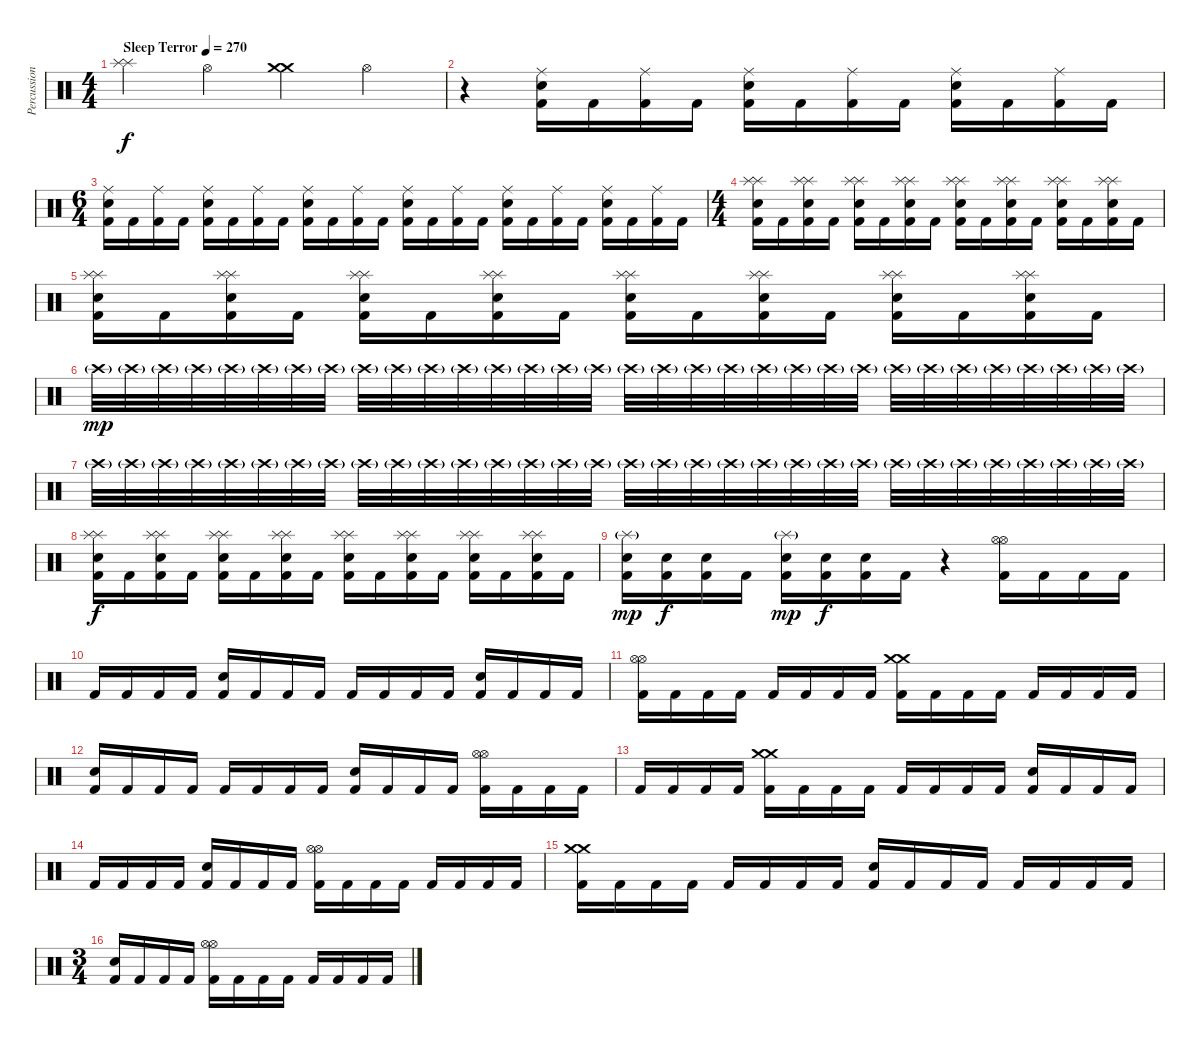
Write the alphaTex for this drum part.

\track ("Percussions" "Percussion") {instrument percussion}
\staff {score}
\articulation defaults
\ts (4 4)
\tempo (270 "Sleep Terror")
\clef neutral
\ks c
("Splash (hit)" "Splash (hit)").4{dy f} "Hi-Hat (open)".4 ("Crash medium (hit)" "Crash medium (hit)").4 "Hi-Hat (open)".4 |
r.4 ("Ride (middle)" "Electric Snare (hit)" "Kick (hit) 2").16 "Kick (hit) 2".16 ("Ride (middle)" "Kick (hit) 2").16 "Kick (hit) 2".16 ("Ride (middle)" "Electric Snare (hit)" "Kick (hit) 2").16 "Kick (hit) 2".16 ("Ride (middle)" "Kick (hit) 2").16 "Kick (hit) 2".16 ("Ride (middle)" "Electric Snare (hit)" "Kick (hit) 2").16 "Kick (hit) 2".16 ("Ride (middle)" "Kick (hit) 2").16 "Kick (hit) 2".16 |
\ts (6 4)
("Ride (middle)" "Electric Snare (hit)" "Kick (hit) 2").16 "Kick (hit) 2".16 ("Ride (middle)" "Kick (hit) 2").16 "Kick (hit) 2".16 ("Ride (middle)" "Electric Snare (hit)" "Kick (hit) 2").16 "Kick (hit) 2".16 ("Ride (middle)" "Kick (hit) 2").16 "Kick (hit) 2".16 ("Ride (middle)" "Electric Snare (hit)" "Kick (hit) 2").16 "Kick (hit) 2".16 ("Ride (middle)" "Kick (hit) 2").16 "Kick (hit) 2".16 ("Ride (middle)" "Electric Snare (hit)" "Kick (hit) 2").16 "Kick (hit) 2".16 ("Ride (middle)" "Kick (hit) 2").16 "Kick (hit) 2".16 ("Ride (middle)" "Electric Snare (hit)" "Kick (hit) 2").16 "Kick (hit) 2".16 ("Ride (middle)" "Kick (hit) 2").16 "Kick (hit) 2".16 ("Ride (middle)" "Electric Snare (hit)" "Kick (hit) 2").16 "Kick (hit) 2".16 ("Ride (middle)" "Kick (hit) 2").16 "Kick (hit) 2".16 |
\ts (4 4)
("Splash (hit)" "Splash (hit)" "Electric Snare (hit)" "Kick (hit) 2").16 "Kick (hit) 2".16 ("Splash (hit)" "Splash (hit)" "Electric Snare (hit)" "Kick (hit) 2").16 "Kick (hit) 2".16 ("Splash (hit)" "Splash (hit)" "Electric Snare (hit)" "Kick (hit) 2").16 "Kick (hit) 2".16 ("Splash (hit)" "Splash (hit)" "Electric Snare (hit)" "Kick (hit) 2").16 "Kick (hit) 2".16 ("Splash (hit)" "Splash (hit)" "Electric Snare (hit)" "Kick (hit) 2").16 "Kick (hit) 2".16 ("Splash (hit)" "Splash (hit)" "Electric Snare (hit)" "Kick (hit) 2").16 "Kick (hit) 2".16 ("Splash (hit)" "Splash (hit)" "Electric Snare (hit)" "Kick (hit) 2").16 "Kick (hit) 2".16 ("Splash (hit)" "Splash (hit)" "Electric Snare (hit)" "Kick (hit) 2").16 "Kick (hit) 2".16 |
("Splash (hit)" "Splash (hit)" "Electric Snare (hit)" "Kick (hit) 2").16 "Kick (hit) 2".16 ("Splash (hit)" "Splash (hit)" "Electric Snare (hit)" "Kick (hit) 2").16 "Kick (hit) 2".16 ("Splash (hit)" "Splash (hit)" "Electric Snare (hit)" "Kick (hit) 2").16 "Kick (hit) 2".16 ("Splash (hit)" "Splash (hit)" "Electric Snare (hit)" "Kick (hit) 2").16 "Kick (hit) 2".16 ("Splash (hit)" "Splash (hit)" "Electric Snare (hit)" "Kick (hit) 2").16 "Kick (hit) 2".16 ("Splash (hit)" "Splash (hit)" "Electric Snare (hit)" "Kick (hit) 2").16 "Kick (hit) 2".16 ("Splash (hit)" "Splash (hit)" "Electric Snare (hit)" "Kick (hit) 2").16 "Kick (hit) 2".16 ("Splash (hit)" "Splash (hit)" "Electric Snare (hit)" "Kick (hit) 2").16 "Kick (hit) 2".16 |
"Crash high (hit)"{g}.32{dy mp} "Crash high (hit)"{g}.32 "Crash high (hit)"{g}.32 "Crash high (hit)"{g}.32 "Crash high (hit)"{g}.32 "Crash high (hit)"{g}.32 "Crash high (hit)"{g}.32 "Crash high (hit)"{g}.32 "Crash high (hit)"{g}.32 "Crash high (hit)"{g}.32 "Crash high (hit)"{g}.32 "Crash high (hit)"{g}.32 "Crash high (hit)"{g}.32 "Crash high (hit)"{g}.32 "Crash high (hit)"{g}.32 "Crash high (hit)"{g}.32 "Crash high (hit)"{g}.32 "Crash high (hit)"{g}.32 "Crash high (hit)"{g}.32 "Crash high (hit)"{g}.32 "Crash high (hit)"{g}.32 "Crash high (hit)"{g}.32 "Crash high (hit)"{g}.32 "Crash high (hit)"{g}.32 "Crash high (hit)"{g}.32 "Crash high (hit)"{g}.32 "Crash high (hit)"{g}.32 "Crash high (hit)"{g}.32 "Crash high (hit)"{g}.32 "Crash high (hit)"{g}.32 "Crash high (hit)"{g}.32 "Crash high (hit)"{g}.32 |
"Crash high (hit)"{g}.32 "Crash high (hit)"{g}.32 "Crash high (hit)"{g}.32 "Crash high (hit)"{g}.32 "Crash high (hit)"{g}.32 "Crash high (hit)"{g}.32 "Crash high (hit)"{g}.32 "Crash high (hit)"{g}.32 "Crash high (hit)"{g}.32 "Crash high (hit)"{g}.32 "Crash high (hit)"{g}.32 "Crash high (hit)"{g}.32 "Crash high (hit)"{g}.32 "Crash high (hit)"{g}.32 "Crash high (hit)"{g}.32 "Crash high (hit)"{g}.32 "Crash high (hit)"{g}.32 "Crash high (hit)"{g}.32 "Crash high (hit)"{g}.32 "Crash high (hit)"{g}.32 "Crash high (hit)"{g}.32 "Crash high (hit)"{g}.32 "Crash high (hit)"{g}.32 "Crash high (hit)"{g}.32 "Crash high (hit)"{g}.32 "Crash high (hit)"{g}.32 "Crash high (hit)"{g}.32 "Crash high (hit)"{g}.32 "Crash high (hit)"{g}.32 "Crash high (hit)"{g}.32 "Crash high (hit)"{g}.32 "Crash high (hit)"{g}.32 |
("Splash (hit)" "Splash (hit)" "Electric Snare (hit)" "Kick (hit) 2").16{dy f} "Kick (hit) 2".16 ("Splash (hit)" "Splash (hit)" "Electric Snare (hit)" "Kick (hit) 2").16 "Kick (hit) 2".16 ("Splash (hit)" "Splash (hit)" "Electric Snare (hit)" "Kick (hit) 2").16 "Kick (hit) 2".16 ("Splash (hit)" "Splash (hit)" "Electric Snare (hit)" "Kick (hit) 2").16 "Kick (hit) 2".16 ("Splash (hit)" "Splash (hit)" "Electric Snare (hit)" "Kick (hit) 2").16 "Kick (hit) 2".16 ("Splash (hit)" "Splash (hit)" "Electric Snare (hit)" "Kick (hit) 2").16 "Kick (hit) 2".16 ("Splash (hit)" "Splash (hit)" "Electric Snare (hit)" "Kick (hit) 2").16 "Kick (hit) 2".16 ("Splash (hit)" "Splash (hit)" "Electric Snare (hit)" "Kick (hit) 2").16 "Kick (hit) 2".16 |
("Splash (hit)"{g} "Electric Snare (hit)" "Kick (hit) 2").16{dy mp} ("Electric Snare (hit)" "Kick (hit) 2").16{dy f} ("Electric Snare (hit)" "Kick (hit) 2").16 "Kick (hit) 2".16 ("Splash (hit)"{g} "Electric Snare (hit)" "Kick (hit) 2").16{dy mp} ("Electric Snare (hit)" "Kick (hit) 2").16{dy f} ("Electric Snare (hit)" "Kick (hit) 2").16 "Kick (hit) 2".16 r.4 ("Hi-Hat (open)" "Hi-Hat (open)" "Kick (hit) 2").16 "Kick (hit) 2".16 "Kick (hit) 2".16 "Kick (hit) 2".16 |
"Kick (hit) 2".16 "Kick (hit) 2".16 "Kick (hit) 2".16 "Kick (hit) 2".16 ("Electric Snare (hit)" "Kick (hit) 2").16 "Kick (hit) 2".16 "Kick (hit) 2".16 "Kick (hit) 2".16 "Kick (hit) 2".16 "Kick (hit) 2".16 "Kick (hit) 2".16 "Kick (hit) 2".16 ("Electric Snare (hit)" "Kick (hit) 2").16 "Kick (hit) 2".16 "Kick (hit) 2".16 "Kick (hit) 2".16 |
("Hi-Hat (open)" "Hi-Hat (open)" "Kick (hit) 2").16 "Kick (hit) 2".16 "Kick (hit) 2".16 "Kick (hit) 2".16 "Kick (hit) 2".16 "Kick (hit) 2".16 "Kick (hit) 2".16 "Kick (hit) 2".16 ("Crash medium (hit)" "Crash medium (hit)" "Kick (hit) 2").16 "Kick (hit) 2".16 "Kick (hit) 2".16 "Kick (hit) 2".16 "Kick (hit) 2".16 "Kick (hit) 2".16 "Kick (hit) 2".16 "Kick (hit) 2".16 |
("Electric Snare (hit)" "Kick (hit) 2").16 "Kick (hit) 2".16 "Kick (hit) 2".16 "Kick (hit) 2".16 "Kick (hit) 2".16 "Kick (hit) 2".16 "Kick (hit) 2".16 "Kick (hit) 2".16 ("Electric Snare (hit)" "Kick (hit) 2").16 "Kick (hit) 2".16 "Kick (hit) 2".16 "Kick (hit) 2".16 ("Hi-Hat (open)" "Hi-Hat (open)" "Kick (hit) 2").16 "Kick (hit) 2".16 "Kick (hit) 2".16 "Kick (hit) 2".16 |
"Kick (hit) 2".16 "Kick (hit) 2".16 "Kick (hit) 2".16 "Kick (hit) 2".16 ("Crash medium (hit)" "Crash medium (hit)" "Kick (hit) 2").16 "Kick (hit) 2".16 "Kick (hit) 2".16 "Kick (hit) 2".16 "Kick (hit) 2".16 "Kick (hit) 2".16 "Kick (hit) 2".16 "Kick (hit) 2".16 ("Electric Snare (hit)" "Kick (hit) 2").16 "Kick (hit) 2".16 "Kick (hit) 2".16 "Kick (hit) 2".16 |
"Kick (hit) 2".16 "Kick (hit) 2".16 "Kick (hit) 2".16 "Kick (hit) 2".16 ("Electric Snare (hit)" "Kick (hit) 2").16 "Kick (hit) 2".16 "Kick (hit) 2".16 "Kick (hit) 2".16 ("Hi-Hat (open)" "Hi-Hat (open)" "Kick (hit) 2").16 "Kick (hit) 2".16 "Kick (hit) 2".16 "Kick (hit) 2".16 "Kick (hit) 2".16 "Kick (hit) 2".16 "Kick (hit) 2".16 "Kick (hit) 2".16 |
("Crash medium (hit)" "Crash medium (hit)" "Kick (hit) 2").16 "Kick (hit) 2".16 "Kick (hit) 2".16 "Kick (hit) 2".16 "Kick (hit) 2".16 "Kick (hit) 2".16 "Kick (hit) 2".16 "Kick (hit) 2".16 ("Electric Snare (hit)" "Kick (hit) 2").16 "Kick (hit) 2".16 "Kick (hit) 2".16 "Kick (hit) 2".16 "Kick (hit) 2".16 "Kick (hit) 2".16 "Kick (hit) 2".16 "Kick (hit) 2".16 |
\ts (3 4)
("Electric Snare (hit)" "Kick (hit) 2").16 "Kick (hit) 2".16 "Kick (hit) 2".16 "Kick (hit) 2".16 ("Hi-Hat (open)" "Hi-Hat (open)" "Kick (hit) 2").16 "Kick (hit) 2".16 "Kick (hit) 2".16 "Kick (hit) 2".16 "Kick (hit) 2".16 "Kick (hit) 2".16 "Kick (hit) 2".16 "Kick (hit) 2".16
